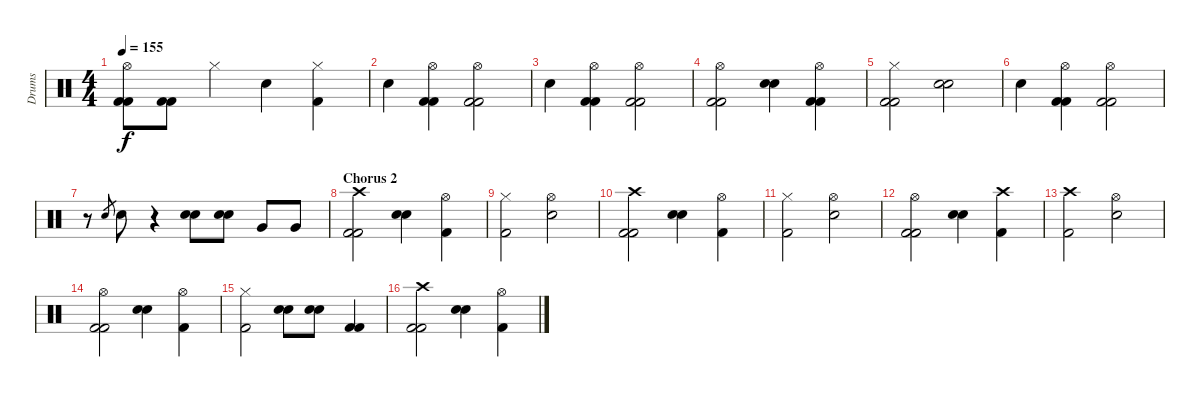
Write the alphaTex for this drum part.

\track ("Drums" "Drums") {instrument percussion}
\staff {score}
\articulation defaults
\ts (4 4)
\tempo 155
\clef neutral
\ks c
("Hi-Hat (open)" "Kick (hit) 2" "Kick (hit) 2").8{dy f} ("Kick (hit) 2" "Kick (hit) 2").8 "Hi-Hat (closed)".4 "Snare (hit) 2".4 ("Hi-Hat (closed)" "Kick (hit) 2").4 |
"Snare (hit) 2".4 ("Hi-Hat (open)" "Kick (hit) 2" "Kick (hit) 2").4 ("Hi-Hat (open)" "Kick (hit) 2" "Kick (hit) 2").2 |
"Snare (hit) 2".4 ("Hi-Hat (open)" "Kick (hit) 2" "Kick (hit) 2").4 ("Hi-Hat (open)" "Kick (hit) 2" "Kick (hit) 2").2 |
("Hi-Hat (open)" "Kick (hit) 2" "Kick (hit) 2").2 ("Snare (hit) 2" "Snare (hit) 2").4 ("Hi-Hat (open)" "Kick (hit) 2" "Kick (hit) 2").4 |
("Hi-Hat (closed)" "Kick (hit) 2" "Kick (hit) 2").2 ("Snare (hit) 2" "Snare (hit) 2").2 |
"Snare (hit) 2".4 ("Hi-Hat (open)" "Kick (hit) 2" "Kick (hit) 2").4 ("Hi-Hat (open)" "Kick (hit) 2" "Kick (hit) 2").2 |
r.8 "Snare (hit) 2".8{gr} "Snare (hit) 2".8 r.4 ("Snare (hit) 2" "Snare (hit) 2").8 ("Snare (hit) 2" "Snare (hit) 2").8 "Very Low Tom (hit)".8 "Very Low Tom (hit)".8 |
\section ("" "Chorus 2")
("Crash high (hit)" "Kick (hit) 2" "Kick (hit) 2").2 ("Snare (hit) 2" "Snare (hit) 2").4 ("Hi-Hat (open)" "Kick (hit) 2").4 |
("Hi-Hat (closed)" "Kick (hit) 2").2 ("Hi-Hat (open)" "Snare (hit) 2").2 |
("Crash high (hit)" "Kick (hit) 2" "Kick (hit) 2").2 ("Snare (hit) 2" "Snare (hit) 2").4 ("Hi-Hat (open)" "Kick (hit) 2").4 |
("Hi-Hat (closed)" "Kick (hit) 2").2 ("Hi-Hat (open)" "Snare (hit) 2").2 |
("Hi-Hat (open)" "Kick (hit) 2" "Kick (hit) 2").2 ("Snare (hit) 2" "Snare (hit) 2").4 ("Crash high (hit)" "Kick (hit) 2").4 |
("Crash high (hit)" "Kick (hit) 2").2 ("Hi-Hat (open)" "Snare (hit) 2").2 |
("Hi-Hat (open)" "Kick (hit) 2" "Kick (hit) 2").2 ("Snare (hit) 2" "Snare (hit) 2").4 ("Hi-Hat (open)" "Kick (hit) 2").4 |
("Hi-Hat (closed)" "Kick (hit) 2").2 ("Snare (hit) 2" "Snare (hit) 2").8 ("Snare (hit) 2" "Snare (hit) 2").8 ("Kick (hit) 2" "Kick (hit) 2").4 |
("Crash high (hit)" "Kick (hit) 2" "Kick (hit) 2").2 ("Snare (hit) 2" "Snare (hit) 2").4 ("Hi-Hat (open)" "Kick (hit) 2").4
